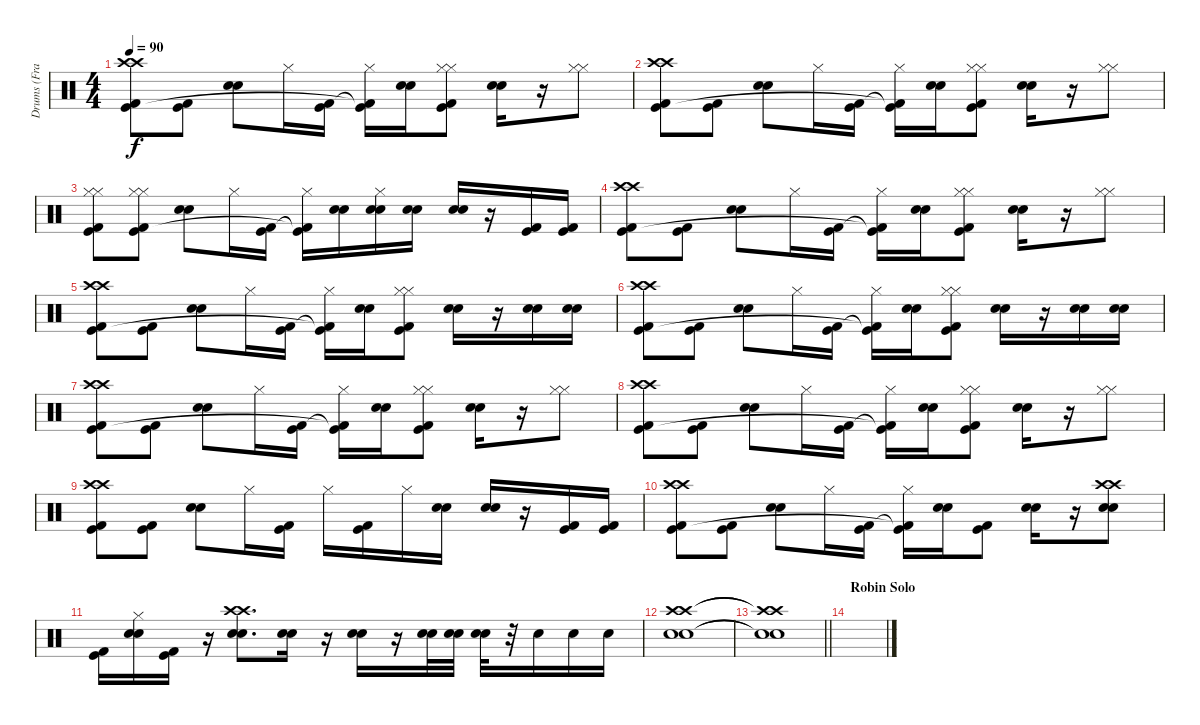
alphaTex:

\track ("Drums (Frank Ferrer)" "Drums (Fra") {instrument percussion}
\staff {score}
\articulation defaults
\ts (4 4)
\tempo 90
\clef neutral
\ks c
("Crash high (hit)" "Crash high (hit)" "Kick (hit)" "Kick (hit) 2").8{dy f} ("Kick (hit)" "Kick (hit) 2").8 ("Snare (hit) 2" "Snare (hit) 2").8 "Hi-Hat (closed)".16 ("Kick (hit)" "Kick (hit) 2").16 ("Hi-Hat (closed)" "Kick (hit)"{t} "Kick (hit) 2"{t}).16 ("Snare (hit) 2" "Snare (hit) 2").16 ("Hi-Hat (closed)" "Hi-Hat (closed)" "Kick (hit)" "Kick (hit) 2").8 ("Snare (hit) 2" "Snare (hit) 2").16 r.16 ("Hi-Hat (closed)" "Hi-Hat (closed)").8 |
("Crash high (hit)" "Crash high (hit)" "Kick (hit)" "Kick (hit) 2").8 ("Kick (hit)" "Kick (hit) 2").8 ("Snare (hit) 2" "Snare (hit) 2").8 "Hi-Hat (closed)".16 ("Kick (hit)" "Kick (hit) 2").16 ("Hi-Hat (closed)" "Kick (hit)"{t} "Kick (hit) 2"{t}).16 ("Snare (hit) 2" "Snare (hit) 2").16 ("Hi-Hat (closed)" "Hi-Hat (closed)" "Kick (hit)" "Kick (hit) 2").8 ("Snare (hit) 2" "Snare (hit) 2").16 r.16 ("Hi-Hat (closed)" "Hi-Hat (closed)").8 |
("Hi-Hat (closed)" "Hi-Hat (closed)" "Kick (hit)" "Kick (hit) 2").8 ("Hi-Hat (closed)" "Hi-Hat (closed)" "Kick (hit)" "Kick (hit) 2").8 ("Snare (hit) 2" "Snare (hit) 2").8 "Hi-Hat (closed)".16 ("Kick (hit)" "Kick (hit) 2").16 ("Hi-Hat (closed)" "Kick (hit)"{t} "Kick (hit) 2"{t}).16 ("Snare (hit) 2" "Snare (hit) 2").16 ("Hi-Hat (closed)" "Snare (hit) 2" "Snare (hit) 2").16 ("Snare (hit) 2" "Snare (hit) 2").16 ("Snare (hit) 2" "Snare (hit) 2").16 r.16 ("Kick (hit)" "Kick (hit) 2").16 ("Kick (hit)" "Kick (hit) 2").16 |
("Crash high (hit)" "Crash high (hit)" "Kick (hit)" "Kick (hit) 2").8 ("Kick (hit)" "Kick (hit) 2").8 ("Snare (hit) 2" "Snare (hit) 2").8 "Hi-Hat (closed)".16 ("Kick (hit)" "Kick (hit) 2").16 ("Hi-Hat (closed)" "Kick (hit)"{t} "Kick (hit) 2"{t}).16 ("Snare (hit) 2" "Snare (hit) 2").16 ("Hi-Hat (closed)" "Hi-Hat (closed)" "Kick (hit)" "Kick (hit) 2").8 ("Snare (hit) 2" "Snare (hit) 2").16 r.16 ("Hi-Hat (closed)" "Hi-Hat (closed)").8 |
("Crash high (hit)" "Crash high (hit)" "Kick (hit)" "Kick (hit) 2").8 ("Kick (hit)" "Kick (hit) 2").8 ("Snare (hit) 2" "Snare (hit) 2").8 "Hi-Hat (closed)".16 ("Kick (hit)" "Kick (hit) 2").16 ("Hi-Hat (closed)" "Kick (hit)"{t} "Kick (hit) 2"{t}).16 ("Snare (hit) 2" "Snare (hit) 2").16 ("Hi-Hat (closed)" "Hi-Hat (closed)" "Kick (hit)" "Kick (hit) 2").8 ("Snare (hit) 2" "Snare (hit) 2").16 r.16 ("Snare (hit) 2" "Snare (hit) 2").16 ("Snare (hit) 2" "Snare (hit) 2").16 |
("Crash high (hit)" "Crash high (hit)" "Kick (hit)" "Kick (hit) 2").8 ("Kick (hit)" "Kick (hit) 2").8 ("Snare (hit) 2" "Snare (hit) 2").8 "Hi-Hat (closed)".16 ("Kick (hit)" "Kick (hit) 2").16 ("Hi-Hat (closed)" "Kick (hit)"{t} "Kick (hit) 2"{t}).16 ("Snare (hit) 2" "Snare (hit) 2").16 ("Hi-Hat (closed)" "Hi-Hat (closed)" "Kick (hit)" "Kick (hit) 2").8 ("Snare (hit) 2" "Snare (hit) 2").16 r.16 ("Snare (hit) 2" "Snare (hit) 2").16 ("Snare (hit) 2" "Snare (hit) 2").16 |
("Crash high (hit)" "Crash high (hit)" "Kick (hit)" "Kick (hit) 2").8 ("Kick (hit)" "Kick (hit) 2").8 ("Snare (hit) 2" "Snare (hit) 2").8 "Hi-Hat (closed)".16 ("Kick (hit)" "Kick (hit) 2").16 ("Hi-Hat (closed)" "Kick (hit)"{t} "Kick (hit) 2"{t}).16 ("Snare (hit) 2" "Snare (hit) 2").16 ("Hi-Hat (closed)" "Hi-Hat (closed)" "Kick (hit)" "Kick (hit) 2").8 ("Snare (hit) 2" "Snare (hit) 2").16 r.16 ("Hi-Hat (closed)" "Hi-Hat (closed)").8 |
("Crash high (hit)" "Crash high (hit)" "Kick (hit)" "Kick (hit) 2").8 ("Kick (hit)" "Kick (hit) 2").8 ("Snare (hit) 2" "Snare (hit) 2").8 "Hi-Hat (closed)".16 ("Kick (hit)" "Kick (hit) 2").16 ("Hi-Hat (closed)" "Kick (hit)"{t} "Kick (hit) 2"{t}).16 ("Snare (hit) 2" "Snare (hit) 2").16 ("Hi-Hat (closed)" "Hi-Hat (closed)" "Kick (hit)" "Kick (hit) 2").8 ("Snare (hit) 2" "Snare (hit) 2").16 r.16 ("Hi-Hat (closed)" "Hi-Hat (closed)").8 |
("Crash high (hit)" "Crash high (hit)" "Kick (hit)" "Kick (hit) 2").8 ("Kick (hit)" "Kick (hit) 2").8 ("Snare (hit) 2" "Snare (hit) 2").8 "Hi-Hat (closed)".16 ("Kick (hit)" "Kick (hit) 2").16 "Hi-Hat (closed)".16 ("Kick (hit)" "Kick (hit) 2").16 "Hi-Hat (closed)".16 ("Snare (hit) 2" "Snare (hit) 2").16 ("Snare (hit) 2" "Snare (hit) 2").16 r.16 ("Kick (hit)" "Kick (hit) 2").16 ("Kick (hit)" "Kick (hit) 2").16 |
("Crash high (hit)" "Crash high (hit)" "Kick (hit)" "Kick (hit) 2").8 ("Kick (hit)" "Kick (hit) 2").8 ("Snare (hit) 2" "Snare (hit) 2").8 "Hi-Hat (closed)".16 ("Kick (hit)" "Kick (hit) 2").16 ("Hi-Hat (closed)" "Kick (hit)"{t} "Kick (hit) 2"{t}).16 ("Snare (hit) 2" "Snare (hit) 2").16 ("Kick (hit)" "Kick (hit) 2").8 ("Snare (hit) 2" "Snare (hit) 2").16 r.16 ("Crash high (hit)" "Crash high (hit)" "Snare (hit) 2" "Snare (hit) 2").8 |
("Kick (hit)" "Kick (hit) 2").16 ("Hi-Hat (closed)" "Snare (hit) 2" "Snare (hit) 2").16 ("Kick (hit)" "Kick (hit) 2").16 r.16 ("Crash high (hit)" "Crash high (hit)" "Snare (hit) 2" "Snare (hit) 2").8{d} ("Snare (hit) 2" "Snare (hit) 2").16 r.16 ("Snare (hit) 2" "Snare (hit) 2").16 r.16 ("Snare (hit) 2" "Snare (hit) 2").32 ("Snare (hit) 2" "Snare (hit) 2").32 ("Snare (hit) 2" "Snare (hit) 2").32 r.32 "Snare (hit) 2".16 "Snare (hit) 2".16 "Snare (hit) 2".16 |
("Crash high (hit)" "Crash high (hit)" "Snare (hit) 2" "Snare (hit) 2").1 |
\barLineRight lightlight
("Crash high (hit)"{t} "Crash high (hit)"{t} "Snare (hit) 2"{t} "Snare (hit) 2"{t}).1 |
\section ("" "Robin Solo")
